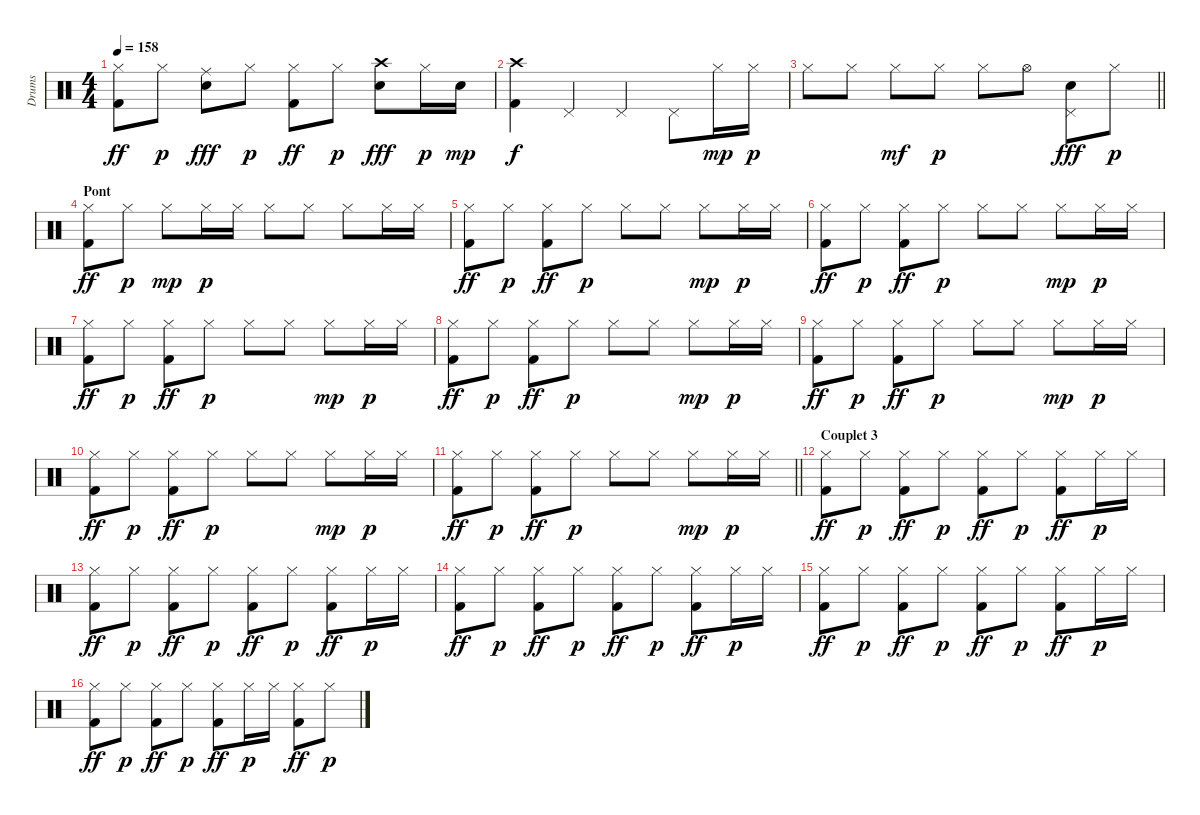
\track ("Drums" "Drums") {instrument percussion}
\staff {score}
\articulation defaults
\ts (4 4)
\tempo 158
\clef neutral
\ks c
("Hi-Hat (closed)" "Kick (hit) 2").8{dy ff} "Hi-Hat (closed)".8{dy p} ("Ride (middle)" "Snare (hit) 2").8{dy fff} "Hi-Hat (closed)".8{dy p} ("Hi-Hat (closed)" "Kick (hit) 2").8{dy ff} "Hi-Hat (closed)".8{dy p} ("Crash high (hit)" "Snare (hit) 2").8{dy fff} "Hi-Hat (closed)".16{dy p} "Snare (hit) 2".16{dy mp} |
("Crash high (hit)" "Kick (hit) 2").4{dy f} "Pedal Hi-Hat (hit)".4 "Pedal Hi-Hat (hit)".4 "Pedal Hi-Hat (hit)".8 "Hi-Hat (closed)".16{dy mp} "Hi-Hat (closed)".16{dy p} |
\barLineRight lightlight "Hi-Hat (closed)".8 "Hi-Hat (closed)".8 "Hi-Hat (closed)".8{dy mf} "Hi-Hat (closed)".8{dy p} "Hi-Hat (closed)".8 "Hi-Hat (open)".8
("Pedal Hi-Hat (hit)" "Snare (hit) 2").8{dy fff} "Hi-Hat (closed)".8{dy p} |
\section ("" "Pont ")
("Hi-Hat (closed)" "Kick (hit) 2").8{dy ff} "Hi-Hat (closed)".8{dy p} "Hi-Hat (closed)".8{dy mp} "Hi-Hat (closed)".16{dy p} "Hi-Hat (closed)".16 "Hi-Hat (closed)".8 "Hi-Hat (closed)".8 "Hi-Hat (closed)".8 "Hi-Hat (closed)".16 "Hi-Hat (closed)".16 |
("Hi-Hat (closed)" "Kick (hit) 2").8{dy ff} "Hi-Hat (closed)".8{dy p} ("Hi-Hat (closed)" "Kick (hit) 2").8{dy ff} "Hi-Hat (closed)".8{dy p} "Hi-Hat (closed)".8 "Hi-Hat (closed)".8 "Hi-Hat (closed)".8{dy mp} "Hi-Hat (closed)".16{dy p} "Hi-Hat (closed)".16 |
("Hi-Hat (closed)" "Kick (hit) 2").8{dy ff} "Hi-Hat (closed)".8{dy p} ("Hi-Hat (closed)" "Kick (hit) 2").8{dy ff} "Hi-Hat (closed)".8{dy p} "Hi-Hat (closed)".8 "Hi-Hat (closed)".8 "Hi-Hat (closed)".8{dy mp} "Hi-Hat (closed)".16{dy p} "Hi-Hat (closed)".16 |
("Hi-Hat (closed)" "Kick (hit) 2").8{dy ff} "Hi-Hat (closed)".8{dy p} ("Hi-Hat (closed)" "Kick (hit) 2").8{dy ff} "Hi-Hat (closed)".8{dy p} "Hi-Hat (closed)".8 "Hi-Hat (closed)".8 "Hi-Hat (closed)".8{dy mp} "Hi-Hat (closed)".16{dy p} "Hi-Hat (closed)".16 |
("Hi-Hat (closed)" "Kick (hit) 2").8{dy ff} "Hi-Hat (closed)".8{dy p} ("Hi-Hat (closed)" "Kick (hit) 2").8{dy ff} "Hi-Hat (closed)".8{dy p} "Hi-Hat (closed)".8 "Hi-Hat (closed)".8 "Hi-Hat (closed)".8{dy mp} "Hi-Hat (closed)".16{dy p} "Hi-Hat (closed)".16 |
("Hi-Hat (closed)" "Kick (hit) 2").8{dy ff} "Hi-Hat (closed)".8{dy p} ("Hi-Hat (closed)" "Kick (hit) 2").8{dy ff} "Hi-Hat (closed)".8{dy p} "Hi-Hat (closed)".8 "Hi-Hat (closed)".8 "Hi-Hat (closed)".8{dy mp} "Hi-Hat (closed)".16{dy p} "Hi-Hat (closed)".16 |
("Hi-Hat (closed)" "Kick (hit) 2").8{dy ff} "Hi-Hat (closed)".8{dy p} ("Hi-Hat (closed)" "Kick (hit) 2").8{dy ff} "Hi-Hat (closed)".8{dy p} "Hi-Hat (closed)".8 "Hi-Hat (closed)".8 "Hi-Hat (closed)".8{dy mp} "Hi-Hat (closed)".16{dy p} "Hi-Hat (closed)".16 |
\barLineRight lightlight
("Hi-Hat (closed)" "Kick (hit) 2").8{dy ff} "Hi-Hat (closed)".8{dy p} ("Hi-Hat (closed)" "Kick (hit) 2").8{dy ff} "Hi-Hat (closed)".8{dy p} "Hi-Hat (closed)".8 "Hi-Hat (closed)".8 "Hi-Hat (closed)".8{dy mp} "Hi-Hat (closed)".16{dy p} "Hi-Hat (closed)".16 |
\section ("" "Couplet 3")
("Hi-Hat (closed)" "Kick (hit) 2").8{dy ff} "Hi-Hat (closed)".8{dy p} ("Hi-Hat (closed)" "Kick (hit) 2").8{dy ff} "Hi-Hat (closed)".8{dy p} ("Hi-Hat (closed)" "Kick (hit) 2").8{dy ff} "Hi-Hat (closed)".8{dy p} ("Hi-Hat (closed)" "Kick (hit) 2").8{dy ff} "Hi-Hat (closed)".16{dy p} "Hi-Hat (closed)".16 |
("Hi-Hat (closed)" "Kick (hit) 2").8{dy ff} "Hi-Hat (closed)".8{dy p} ("Hi-Hat (closed)" "Kick (hit) 2").8{dy ff} "Hi-Hat (closed)".8{dy p} ("Hi-Hat (closed)" "Kick (hit) 2").8{dy ff} "Hi-Hat (closed)".8{dy p} ("Hi-Hat (closed)" "Kick (hit) 2").8{dy ff} "Hi-Hat (closed)".16{dy p} "Hi-Hat (closed)".16 |
("Hi-Hat (closed)" "Kick (hit) 2").8{dy ff} "Hi-Hat (closed)".8{dy p} ("Hi-Hat (closed)" "Kick (hit) 2").8{dy ff} "Hi-Hat (closed)".8{dy p} ("Hi-Hat (closed)" "Kick (hit) 2").8{dy ff} "Hi-Hat (closed)".8{dy p} ("Hi-Hat (closed)" "Kick (hit) 2").8{dy ff} "Hi-Hat (closed)".16{dy p} "Hi-Hat (closed)".16 |
("Hi-Hat (closed)" "Kick (hit) 2").8{dy ff} "Hi-Hat (closed)".8{dy p} ("Hi-Hat (closed)" "Kick (hit) 2").8{dy ff} "Hi-Hat (closed)".8{dy p} ("Hi-Hat (closed)" "Kick (hit) 2").8{dy ff} "Hi-Hat (closed)".8{dy p} ("Hi-Hat (closed)" "Kick (hit) 2").8{dy ff} "Hi-Hat (closed)".16{dy p} "Hi-Hat (closed)".16 |
("Hi-Hat (closed)" "Kick (hit) 2").8{dy ff} "Hi-Hat (closed)".8{dy p} ("Hi-Hat (closed)" "Kick (hit) 2").8{dy ff} "Hi-Hat (closed)".8{dy p} ("Hi-Hat (closed)" "Kick (hit) 2").8{dy ff} "Hi-Hat (closed)".16{dy p} "Hi-Hat (closed)".16 ("Hi-Hat (closed)" "Kick (hit) 2").8{dy ff} "Hi-Hat (closed)".8{dy p}
